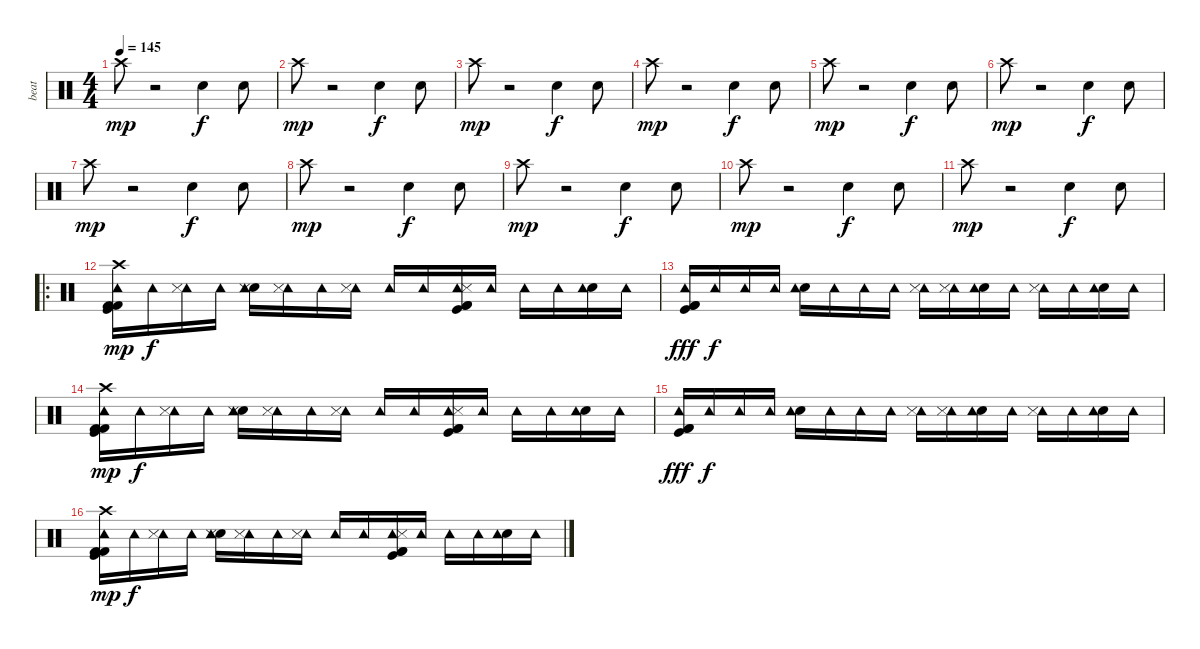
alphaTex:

\track ("beat" "beat") {instrument percussion}
\staff {score}
\articulation defaults
\ts (4 4)
\tempo 145
\clef neutral
\ks c "Crash high (hit)".8{dy mp}
r.2 "Electric Snare (hit)".4{dy f} "Electric Snare (hit)".8 |
"Crash high (hit)".8{dy mp} r.2 "Electric Snare (hit)".4{dy f} "Electric Snare (hit)".8 |
"Crash high (hit)".8{dy mp} r.2 "Electric Snare (hit)".4{dy f} "Electric Snare (hit)".8 |
"Crash high (hit)".8{dy mp} r.2 "Electric Snare (hit)".4{dy f} "Electric Snare (hit)".8 |
"Crash high (hit)".8{dy mp} r.2 "Electric Snare (hit)".4{dy f} "Electric Snare (hit)".8 |
"Crash high (hit)".8{dy mp} r.2 "Electric Snare (hit)".4{dy f} "Electric Snare (hit)".8 |
"Crash high (hit)".8{dy mp} r.2 "Electric Snare (hit)".4{dy f} "Electric Snare (hit)".8 |
"Crash high (hit)".8{dy mp} r.2 "Electric Snare (hit)".4{dy f} "Electric Snare (hit)".8 |
"Crash high (hit)".8{dy mp} r.2 "Electric Snare (hit)".4{dy f} "Electric Snare (hit)".8 |
"Crash high (hit)".8{dy mp} r.2 "Electric Snare (hit)".4{dy f} "Electric Snare (hit)".8 |
"Crash high (hit)".8{dy mp} r.2 "Electric Snare (hit)".4{dy f} "Electric Snare (hit)".8 |
\ro
("Kick (hit)" "Kick (hit) 2" "Kick (hit) 2" "Tambourine (hit)" "Crash high (hit)").16{dy mp} "Tambourine (hit)".16{dy f} ("Tambourine (hit)" "Snare (side stick) 3").16 "Tambourine (hit)".16 ("Electric Snare (hit)" "Tambourine (hit)" "Snare (side stick) 3").16 ("Tambourine (hit)" "Snare (side stick) 3").16 "Tambourine (hit)".16 ("Tambourine (hit)" "Snare (side stick) 3").16 "Tambourine (hit)".16 "Tambourine (hit)".16 ("Kick (hit)" "Kick (hit) 2" "Kick (hit) 2" "Tambourine (hit)" "Snare (side stick) 3").16 "Tambourine (hit)".16 "Tambourine (hit)".16 "Tambourine (hit)".16 ("Electric Snare (hit)" "Tambourine (hit)").16 "Tambourine (hit)".16 |
("Kick (hit)" "Kick (hit) 2" "Kick (hit) 2" "Tambourine (hit)").16{dy fff} "Tambourine (hit)".16{dy f} "Tambourine (hit)".16 "Tambourine (hit)".16 ("Electric Snare (hit)" "Tambourine (hit)").16 "Tambourine (hit)".16 "Tambourine (hit)".16 "Tambourine (hit)".16 ("Tambourine (hit)" "Snare (side stick) 3").16 ("Tambourine (hit)" "Snare (side stick) 3").16 ("Electric Snare (hit)" "Tambourine (hit)").16 "Tambourine (hit)".16 ("Tambourine (hit)" "Snare (side stick) 3").16 "Tambourine (hit)".16 ("Electric Snare (hit)" "Tambourine (hit)").16 "Tambourine (hit)".16 |
("Kick (hit)" "Kick (hit) 2" "Kick (hit) 2" "Tambourine (hit)" "Crash high (hit)").16{dy mp} "Tambourine (hit)".16{dy f} ("Tambourine (hit)" "Snare (side stick) 3").16 "Tambourine (hit)".16 ("Electric Snare (hit)" "Tambourine (hit)" "Snare (side stick) 3").16 ("Tambourine (hit)" "Snare (side stick) 3").16 "Tambourine (hit)".16 ("Tambourine (hit)" "Snare (side stick) 3").16 "Tambourine (hit)".16 "Tambourine (hit)".16 ("Kick (hit)" "Kick (hit) 2" "Kick (hit) 2" "Tambourine (hit)" "Snare (side stick) 3").16 "Tambourine (hit)".16 "Tambourine (hit)".16 "Tambourine (hit)".16 ("Electric Snare (hit)" "Tambourine (hit)").16 "Tambourine (hit)".16 |
("Kick (hit)" "Kick (hit) 2" "Kick (hit) 2" "Tambourine (hit)").16{dy fff} "Tambourine (hit)".16{dy f} "Tambourine (hit)".16 "Tambourine (hit)".16 ("Electric Snare (hit)" "Tambourine (hit)").16 "Tambourine (hit)".16 "Tambourine (hit)".16 "Tambourine (hit)".16 ("Tambourine (hit)" "Snare (side stick) 3").16 ("Tambourine (hit)" "Snare (side stick) 3").16 ("Electric Snare (hit)" "Tambourine (hit)").16 "Tambourine (hit)".16 ("Tambourine (hit)" "Snare (side stick) 3").16 "Tambourine (hit)".16 ("Electric Snare (hit)" "Tambourine (hit)").16 "Tambourine (hit)".16 |
("Kick (hit)" "Kick (hit) 2" "Kick (hit) 2" "Tambourine (hit)" "Crash high (hit)").16{dy mp} "Tambourine (hit)".16{dy f} ("Tambourine (hit)" "Snare (side stick) 3").16 "Tambourine (hit)".16 ("Electric Snare (hit)" "Tambourine (hit)" "Snare (side stick) 3").16 ("Tambourine (hit)" "Snare (side stick) 3").16 "Tambourine (hit)".16 ("Tambourine (hit)" "Snare (side stick) 3").16 "Tambourine (hit)".16 "Tambourine (hit)".16 ("Kick (hit)" "Kick (hit) 2" "Kick (hit) 2" "Tambourine (hit)" "Snare (side stick) 3").16 "Tambourine (hit)".16 "Tambourine (hit)".16 "Tambourine (hit)".16 ("Electric Snare (hit)" "Tambourine (hit)").16 "Tambourine (hit)".16
